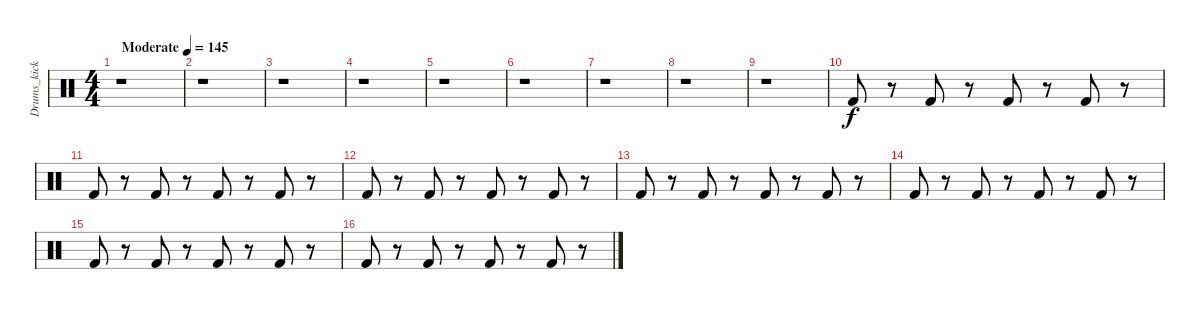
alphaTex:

\track ("Drums_kick" "Drums_kick") {instrument percussion}
\staff {score}
\articulation defaults
\ts (4 4)
\tempo (145 "Moderate")
\clef neutral
\ks c
r.1{dy f} |
r.1 |
r.1 |
r.1 |
r.1 |
r.1 |
r.1 |
r.1 |
r.1 |
"Kick (hit) 2".8 r.8 "Kick (hit) 2".8 r.8 "Kick (hit) 2".8 r.8 "Kick (hit) 2".8 r.8 |
"Kick (hit) 2".8 r.8 "Kick (hit) 2".8 r.8 "Kick (hit) 2".8 r.8 "Kick (hit) 2".8 r.8 |
"Kick (hit) 2".8 r.8 "Kick (hit) 2".8 r.8 "Kick (hit) 2".8 r.8 "Kick (hit) 2".8 r.8 |
"Kick (hit) 2".8 r.8 "Kick (hit) 2".8 r.8 "Kick (hit) 2".8 r.8 "Kick (hit) 2".8 r.8 |
"Kick (hit) 2".8 r.8 "Kick (hit) 2".8 r.8 "Kick (hit) 2".8 r.8 "Kick (hit) 2".8 r.8 |
"Kick (hit) 2".8 r.8 "Kick (hit) 2".8 r.8 "Kick (hit) 2".8 r.8 "Kick (hit) 2".8 r.8 |
"Kick (hit) 2".8 r.8 "Kick (hit) 2".8 r.8 "Kick (hit) 2".8 r.8 "Kick (hit) 2".8 r.8
